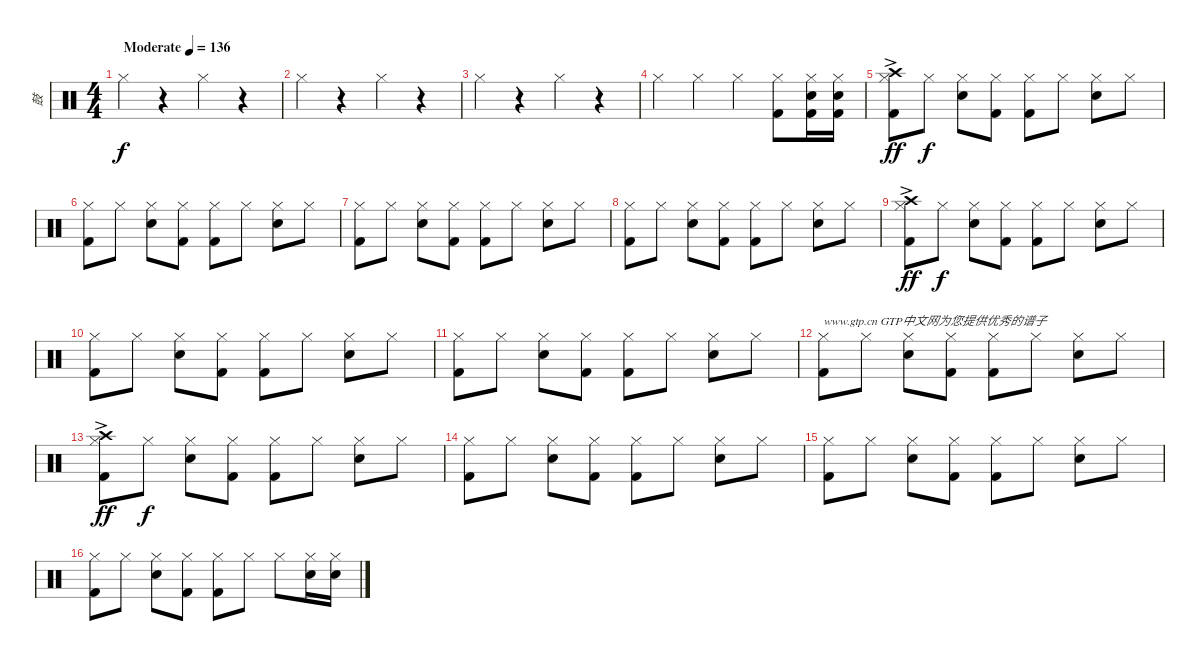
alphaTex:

\track ("鼓" "鼓") {instrument percussion}
\staff {score}
\articulation defaults
\ts (4 4)
\tempo (136 "Moderate")
\clef neutral
\ks c "Hi-Hat (closed)".4{dy f}
r.4 "Hi-Hat (closed)".4 r.4 |
"Hi-Hat (closed)".4 r.4 "Hi-Hat (closed)".4 r.4 |
"Hi-Hat (closed)".4 r.4 "Hi-Hat (closed)".4 r.4 |
"Hi-Hat (closed)".4 "Hi-Hat (closed)".4 "Hi-Hat (closed)".4 ("Hi-Hat (closed)" "Kick (hit) 2").8 ("Hi-Hat (closed)" "Electric Snare (hit)" "Kick (hit) 2").16 ("Hi-Hat (closed)" "Electric Snare (hit)" "Kick (hit) 2").16 |
("Hi-Hat (closed)"{ac} "Crash high (hit)"{ac} "Kick (hit) 2"{ac}).8{dy ff} "Hi-Hat (closed)".8{dy f} ("Hi-Hat (closed)" "Electric Snare (hit)").8 ("Hi-Hat (closed)" "Kick (hit) 2").8 ("Hi-Hat (closed)" "Kick (hit) 2").8 "Hi-Hat (closed)".8 ("Hi-Hat (closed)" "Electric Snare (hit)").8 "Hi-Hat (closed)".8 |
("Hi-Hat (closed)" "Kick (hit) 2").8 "Hi-Hat (closed)".8 ("Hi-Hat (closed)" "Electric Snare (hit)").8 ("Hi-Hat (closed)" "Kick (hit) 2").8 ("Hi-Hat (closed)" "Kick (hit) 2").8 "Hi-Hat (closed)".8 ("Hi-Hat (closed)" "Electric Snare (hit)").8 "Hi-Hat (closed)".8 |
("Hi-Hat (closed)" "Kick (hit) 2").8 "Hi-Hat (closed)".8 ("Hi-Hat (closed)" "Electric Snare (hit)").8 ("Hi-Hat (closed)" "Kick (hit) 2").8 ("Hi-Hat (closed)" "Kick (hit) 2").8 "Hi-Hat (closed)".8 ("Hi-Hat (closed)" "Electric Snare (hit)").8 "Hi-Hat (closed)".8 |
("Hi-Hat (closed)" "Kick (hit) 2").8 "Hi-Hat (closed)".8 ("Hi-Hat (closed)" "Electric Snare (hit)").8 ("Hi-Hat (closed)" "Kick (hit) 2").8 ("Hi-Hat (closed)" "Kick (hit) 2").8 "Hi-Hat (closed)".8 ("Hi-Hat (closed)" "Electric Snare (hit)").8 "Hi-Hat (closed)".8 |
("Hi-Hat (closed)"{ac} "Crash high (hit)"{ac} "Kick (hit) 2"{ac}).8{dy ff} "Hi-Hat (closed)".8{dy f} ("Hi-Hat (closed)" "Electric Snare (hit)").8 ("Hi-Hat (closed)" "Kick (hit) 2").8 ("Hi-Hat (closed)" "Kick (hit) 2").8 "Hi-Hat (closed)".8 ("Hi-Hat (closed)" "Electric Snare (hit)").8 "Hi-Hat (closed)".8 |
("Hi-Hat (closed)" "Kick (hit) 2").8 "Hi-Hat (closed)".8 ("Hi-Hat (closed)" "Electric Snare (hit)").8 ("Hi-Hat (closed)" "Kick (hit) 2").8 ("Hi-Hat (closed)" "Kick (hit) 2").8 "Hi-Hat (closed)".8 ("Hi-Hat (closed)" "Electric Snare (hit)").8 "Hi-Hat (closed)".8 |
("Hi-Hat (closed)" "Kick (hit) 2").8 "Hi-Hat (closed)".8 ("Hi-Hat (closed)" "Electric Snare (hit)").8 ("Hi-Hat (closed)" "Kick (hit) 2").8 ("Hi-Hat (closed)" "Kick (hit) 2").8 "Hi-Hat (closed)".8 ("Hi-Hat (closed)" "Electric Snare (hit)").8 "Hi-Hat (closed)".8 |
("Hi-Hat (closed)" "Kick (hit) 2").8{txt "www.gtp.cn GTP中文网为您提供优秀的谱子"} "Hi-Hat (closed)".8 ("Hi-Hat (closed)" "Electric Snare (hit)").8 ("Hi-Hat (closed)" "Kick (hit) 2").8 ("Hi-Hat (closed)" "Kick (hit) 2").8 "Hi-Hat (closed)".8 ("Hi-Hat (closed)" "Electric Snare (hit)").8 "Hi-Hat (closed)".8 |
("Hi-Hat (closed)" "Crash high (hit)" "Kick (hit) 2"{ac}).8{dy ff} "Hi-Hat (closed)".8{dy f} ("Hi-Hat (closed)" "Electric Snare (hit)").8 ("Hi-Hat (closed)" "Kick (hit) 2").8 ("Hi-Hat (closed)" "Kick (hit) 2").8 "Hi-Hat (closed)".8 ("Hi-Hat (closed)" "Electric Snare (hit)").8 "Hi-Hat (closed)".8 |
("Hi-Hat (closed)" "Kick (hit) 2").8 "Hi-Hat (closed)".8 ("Hi-Hat (closed)" "Electric Snare (hit)").8 ("Hi-Hat (closed)" "Kick (hit) 2").8 ("Hi-Hat (closed)" "Kick (hit) 2").8 "Hi-Hat (closed)".8 ("Hi-Hat (closed)" "Electric Snare (hit)").8 "Hi-Hat (closed)".8 |
("Hi-Hat (closed)" "Kick (hit) 2").8 "Hi-Hat (closed)".8 ("Hi-Hat (closed)" "Electric Snare (hit)").8 ("Hi-Hat (closed)" "Kick (hit) 2").8 ("Hi-Hat (closed)" "Kick (hit) 2").8 "Hi-Hat (closed)".8 ("Hi-Hat (closed)" "Electric Snare (hit)").8 "Hi-Hat (closed)".8 |
("Hi-Hat (closed)" "Kick (hit) 2").8 "Hi-Hat (closed)".8 ("Hi-Hat (closed)" "Electric Snare (hit)").8 ("Hi-Hat (closed)" "Kick (hit) 2").8 ("Hi-Hat (closed)" "Kick (hit) 2").8 "Hi-Hat (closed)".8 "Hi-Hat (closed)".8 ("Hi-Hat (closed)" "Electric Snare (hit)").16 ("Hi-Hat (closed)" "Electric Snare (hit)").16
